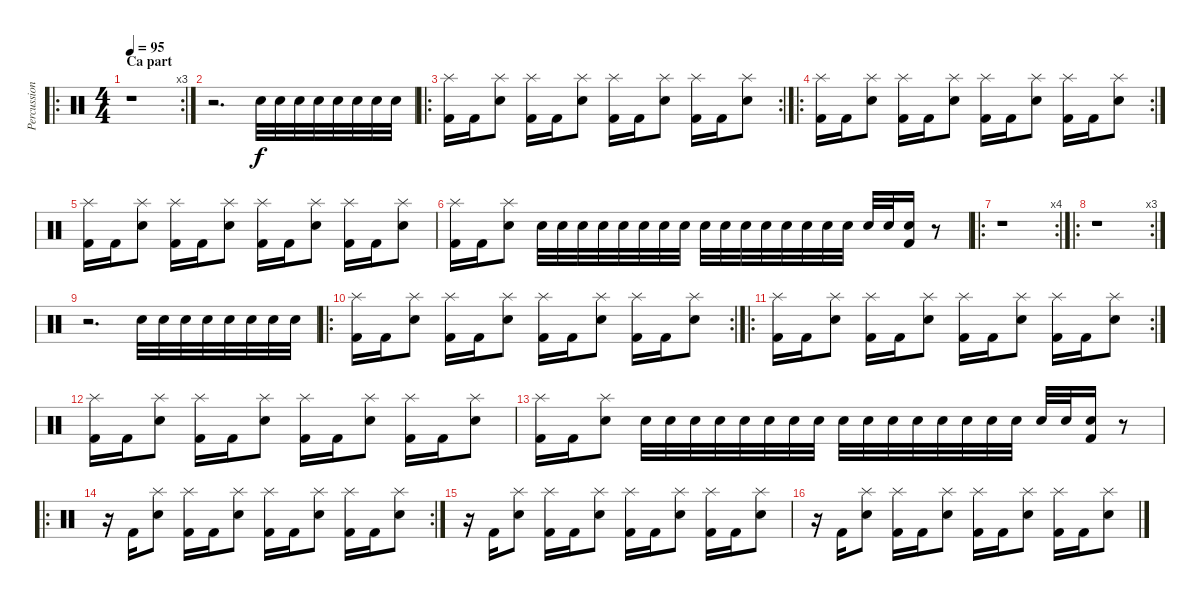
\track ("Percussions" "Percussion") {instrument percussion}
\staff {score}
\articulation defaults
\ro
\rc 3
\ts (4 4)
\section ("" "Ca part")
\tempo 95
\clef neutral
\ks c
r.1{dy f} |
r.2{d} "Snare (hit) 2".32 "Snare (hit) 2".32 "Snare (hit) 2".32 "Snare (hit) 2".32 "Snare (hit) 2".32 "Snare (hit) 2".32 "Snare (hit) 2".32 "Snare (hit) 2".32 |
\ro
\rc 2
("Kick (hit) 2" "Splash (hit)").16 "Kick (hit) 2".16 ("Snare (hit) 2" "Splash (hit)").8 ("Kick (hit) 2" "Splash (hit)").16 "Kick (hit) 2".16 ("Snare (hit) 2" "Splash (hit)").8 ("Kick (hit) 2" "Splash (hit)").16 "Kick (hit) 2".16 ("Snare (hit) 2" "Splash (hit)").8 ("Kick (hit) 2" "Splash (hit)").16 "Kick (hit) 2".16 ("Snare (hit) 2" "Splash (hit)").8 |
\ro
\rc 2
("Kick (hit) 2" "Splash (hit)").16 "Kick (hit) 2".16 ("Snare (hit) 2" "Splash (hit)").8 ("Kick (hit) 2" "Splash (hit)").16 "Kick (hit) 2".16 ("Snare (hit) 2" "Splash (hit)").8 ("Kick (hit) 2" "Splash (hit)").16 "Kick (hit) 2".16 ("Snare (hit) 2" "Splash (hit)").8 ("Kick (hit) 2" "Splash (hit)").16 "Kick (hit) 2".16 ("Snare (hit) 2" "Splash (hit)").8 |
("Kick (hit) 2" "Splash (hit)").16 "Kick (hit) 2".16 ("Snare (hit) 2" "Splash (hit)").8 ("Kick (hit) 2" "Splash (hit)").16 "Kick (hit) 2".16 ("Snare (hit) 2" "Splash (hit)").8 ("Kick (hit) 2" "Splash (hit)").16 "Kick (hit) 2".16 ("Snare (hit) 2" "Splash (hit)").8 ("Kick (hit) 2" "Splash (hit)").16 "Kick (hit) 2".16 ("Snare (hit) 2" "Splash (hit)").8 |
("Kick (hit) 2" "Splash (hit)").16 "Kick (hit) 2".16 ("Snare (hit) 2" "Splash (hit)").8 "Snare (hit) 2".32 "Snare (hit) 2".32 "Snare (hit) 2".32 "Snare (hit) 2".32 "Snare (hit) 2".32 "Snare (hit) 2".32 "Snare (hit) 2".32 "Snare (hit) 2".32 "Snare (hit) 2".32 "Snare (hit) 2".32 "Snare (hit) 2".32 "Snare (hit) 2".32 "Snare (hit) 2".32 "Snare (hit) 2".32 "Snare (hit) 2".32 "Snare (hit) 2".32 "Snare (hit) 2".32 "Snare (hit) 2".32 ("Kick (hit) 2" "Snare (hit) 2").16 r.8 |
\ro
\rc 4
r.1 |
\ro
\rc 3
r.1 |
r.2{d} "Snare (hit) 2".32 "Snare (hit) 2".32 "Snare (hit) 2".32 "Snare (hit) 2".32 "Snare (hit) 2".32 "Snare (hit) 2".32 "Snare (hit) 2".32 "Snare (hit) 2".32 |
\ro
\rc 2
("Kick (hit) 2" "Splash (hit)").16 "Kick (hit) 2".16 ("Snare (hit) 2" "Splash (hit)").8 ("Kick (hit) 2" "Splash (hit)").16 "Kick (hit) 2".16 ("Snare (hit) 2" "Splash (hit)").8 ("Kick (hit) 2" "Splash (hit)").16 "Kick (hit) 2".16 ("Snare (hit) 2" "Splash (hit)").8 ("Kick (hit) 2" "Splash (hit)").16 "Kick (hit) 2".16 ("Snare (hit) 2" "Splash (hit)").8 |
\ro
\rc 2
("Kick (hit) 2" "Splash (hit)").16 "Kick (hit) 2".16 ("Snare (hit) 2" "Splash (hit)").8 ("Kick (hit) 2" "Splash (hit)").16 "Kick (hit) 2".16 ("Snare (hit) 2" "Splash (hit)").8 ("Kick (hit) 2" "Splash (hit)").16 "Kick (hit) 2".16 ("Snare (hit) 2" "Splash (hit)").8 ("Kick (hit) 2" "Splash (hit)").16 "Kick (hit) 2".16 ("Snare (hit) 2" "Splash (hit)").8 |
("Kick (hit) 2" "Splash (hit)").16 "Kick (hit) 2".16 ("Snare (hit) 2" "Splash (hit)").8 ("Kick (hit) 2" "Splash (hit)").16 "Kick (hit) 2".16 ("Snare (hit) 2" "Splash (hit)").8 ("Kick (hit) 2" "Splash (hit)").16 "Kick (hit) 2".16 ("Snare (hit) 2" "Splash (hit)").8 ("Kick (hit) 2" "Splash (hit)").16 "Kick (hit) 2".16 ("Snare (hit) 2" "Splash (hit)").8 |
("Kick (hit) 2" "Splash (hit)").16 "Kick (hit) 2".16 ("Snare (hit) 2" "Splash (hit)").8 "Snare (hit) 2".32 "Snare (hit) 2".32 "Snare (hit) 2".32 "Snare (hit) 2".32 "Snare (hit) 2".32 "Snare (hit) 2".32 "Snare (hit) 2".32 "Snare (hit) 2".32 "Snare (hit) 2".32 "Snare (hit) 2".32 "Snare (hit) 2".32 "Snare (hit) 2".32 "Snare (hit) 2".32 "Snare (hit) 2".32 "Snare (hit) 2".32 "Snare (hit) 2".32 "Snare (hit) 2".32 "Snare (hit) 2".32 ("Kick (hit) 2" "Snare (hit) 2").16 r.8 |
\ro
\rc 2
r.16 "Kick (hit) 2".16 ("Snare (hit) 2" "Splash (hit)").8 ("Kick (hit) 2" "Splash (hit)").16 "Kick (hit) 2".16 ("Snare (hit) 2" "Splash (hit)").8 ("Kick (hit) 2" "Splash (hit)").16 "Kick (hit) 2".16 ("Snare (hit) 2" "Splash (hit)").8 ("Kick (hit) 2" "Splash (hit)").16 "Kick (hit) 2".16 ("Snare (hit) 2" "Splash (hit)").8 |
r.16 "Kick (hit) 2".16 ("Snare (hit) 2" "Splash (hit)").8 ("Kick (hit) 2" "Splash (hit)").16 "Kick (hit) 2".16 ("Snare (hit) 2" "Splash (hit)").8 ("Kick (hit) 2" "Splash (hit)").16 "Kick (hit) 2".16 ("Snare (hit) 2" "Splash (hit)").8 ("Kick (hit) 2" "Splash (hit)").16 "Kick (hit) 2".16 ("Snare (hit) 2" "Splash (hit)").8 |
r.16 "Kick (hit) 2".16 ("Snare (hit) 2" "Splash (hit)").8 ("Kick (hit) 2" "Splash (hit)").16 "Kick (hit) 2".16 ("Snare (hit) 2" "Splash (hit)").8 ("Kick (hit) 2" "Splash (hit)").16 "Kick (hit) 2".16 ("Snare (hit) 2" "Splash (hit)").8 ("Kick (hit) 2" "Splash (hit)").16 "Kick (hit) 2".16 ("Snare (hit) 2" "Splash (hit)").8
